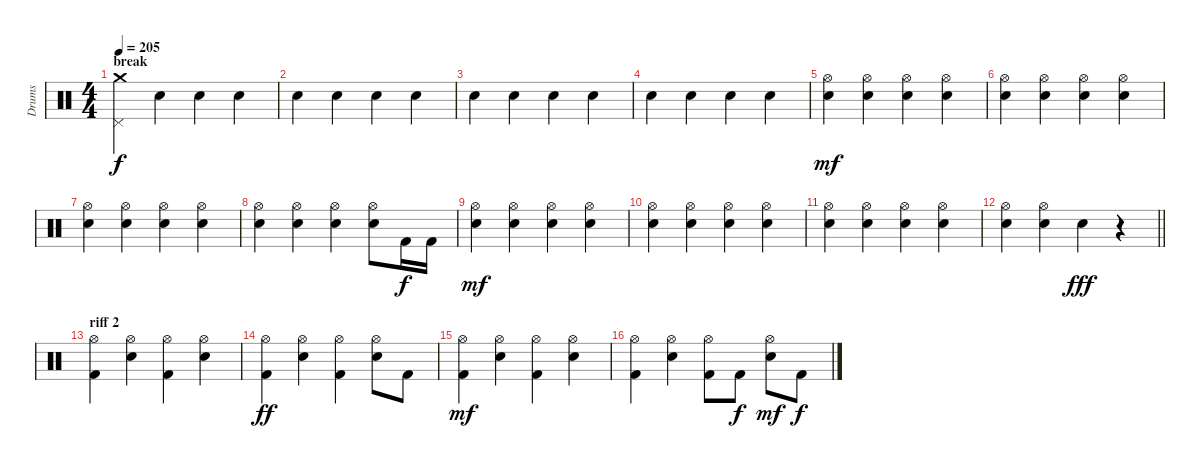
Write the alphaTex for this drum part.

\track ("Drums" "Drums") {instrument percussion}
\staff {score}
\articulation defaults
\ts (4 4)
\section ("" "break")
\tempo 205
\clef neutral
\ks c
("Crash medium (hit)" "Pedal Hi-Hat (hit)").4{dy f} "Snare (hit) 2".4 "Snare (hit) 2".4 "Snare (hit) 2".4 |
"Snare (hit) 2".4 "Snare (hit) 2".4 "Snare (hit) 2".4 "Snare (hit) 2".4 |
"Snare (hit) 2".4 "Snare (hit) 2".4 "Snare (hit) 2".4 "Snare (hit) 2".4 |
"Snare (hit) 2".4 "Snare (hit) 2".4 "Snare (hit) 2".4 "Snare (hit) 2".4 |
("Hi-Hat (open)" "Snare (hit) 2").4{dy mf} ("Hi-Hat (open)" "Snare (hit) 2").4 ("Hi-Hat (open)" "Snare (hit) 2").4 ("Hi-Hat (open)" "Snare (hit) 2").4 |
("Hi-Hat (open)" "Snare (hit) 2").4 ("Hi-Hat (open)" "Snare (hit) 2").4 ("Hi-Hat (open)" "Snare (hit) 2").4 ("Hi-Hat (open)" "Snare (hit) 2").4 |
("Hi-Hat (open)" "Snare (hit) 2").4 ("Hi-Hat (open)" "Snare (hit) 2").4 ("Hi-Hat (open)" "Snare (hit) 2").4 ("Hi-Hat (open)" "Snare (hit) 2").4 |
("Hi-Hat (open)" "Snare (hit) 2").4 ("Hi-Hat (open)" "Snare (hit) 2").4 ("Hi-Hat (open)" "Snare (hit) 2").4 ("Hi-Hat (open)" "Snare (hit) 2").8 "Kick (hit) 2".16{dy f} "Kick (hit) 2".16 |
("Hi-Hat (open)" "Snare (hit) 2").4{dy mf} ("Hi-Hat (open)" "Snare (hit) 2").4 ("Hi-Hat (open)" "Snare (hit) 2").4 ("Hi-Hat (open)" "Snare (hit) 2").4 |
("Hi-Hat (open)" "Snare (hit) 2").4 ("Hi-Hat (open)" "Snare (hit) 2").4 ("Hi-Hat (open)" "Snare (hit) 2").4 ("Hi-Hat (open)" "Snare (hit) 2").4 |
("Hi-Hat (open)" "Snare (hit) 2").4 ("Hi-Hat (open)" "Snare (hit) 2").4 ("Hi-Hat (open)" "Snare (hit) 2").4 ("Hi-Hat (open)" "Snare (hit) 2").4 |
\barLineRight lightlight
("Hi-Hat (open)" "Snare (hit) 2").4 ("Hi-Hat (open)" "Snare (hit) 2").4 "Snare (hit) 2".4{dy fff} r.4 |
\section ("" "riff 2")
("Hi-Hat (open)" "Kick (hit) 2").4 ("Hi-Hat (open)" "Snare (hit) 2").4 ("Hi-Hat (open)" "Kick (hit) 2").4 ("Hi-Hat (open)" "Snare (hit) 2").4 |
("Hi-Hat (open)" "Kick (hit) 2").4{dy ff} ("Hi-Hat (open)" "Snare (hit) 2").4 ("Hi-Hat (open)" "Kick (hit) 2").4 ("Hi-Hat (open)" "Snare (hit) 2").8 "Kick (hit) 2".8 |
("Hi-Hat (open)" "Kick (hit) 2").4{dy mf} ("Hi-Hat (open)" "Snare (hit) 2").4 ("Hi-Hat (open)" "Kick (hit) 2").4 ("Hi-Hat (open)" "Snare (hit) 2").4 |
("Hi-Hat (open)" "Kick (hit) 2").4 ("Hi-Hat (open)" "Snare (hit) 2").4 ("Hi-Hat (open)" "Kick (hit) 2").8 "Kick (hit) 2".8{dy f} ("Hi-Hat (open)" "Snare (hit) 2").8{dy mf} "Kick (hit) 2".8{dy f}
